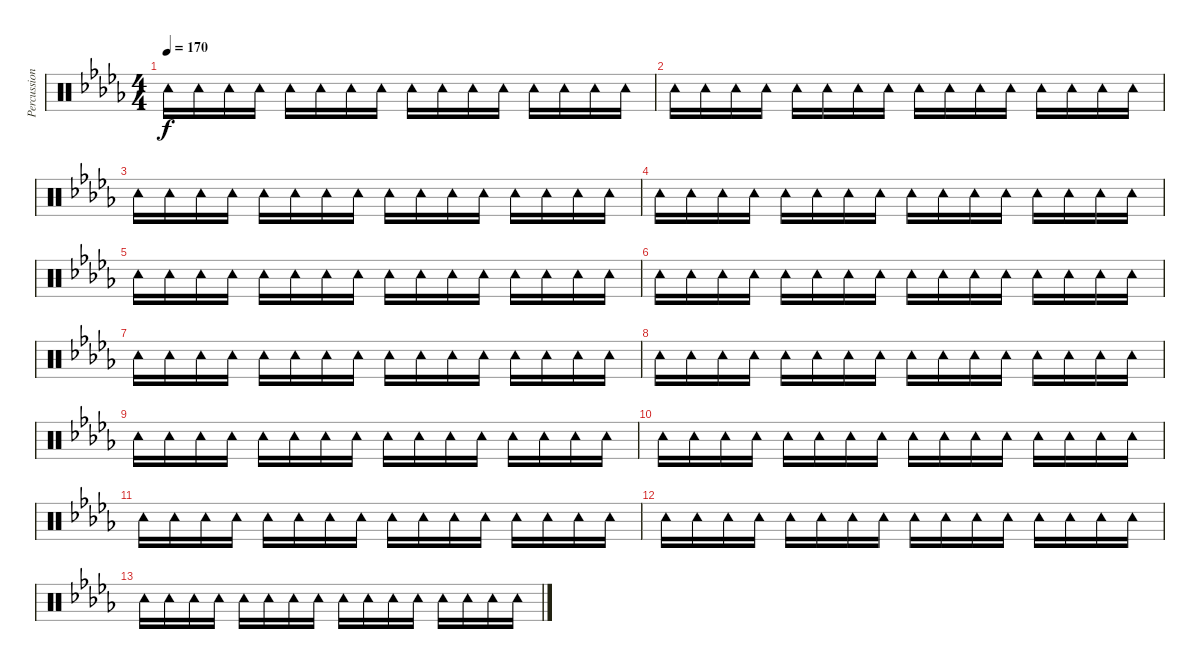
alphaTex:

\track ("Percussion" "Percussion") {instrument percussion}
\staff {score}
\articulation defaults
\ts (4 4)
\tempo 170
\clef neutral
\ks db "Tambourine (hit)".16{dy f} "Tambourine (hit)".16 "Tambourine (hit)".16 "Tambourine (hit)".16 "Tambourine (hit)".16 "Tambourine (hit)".16 "Tambourine (hit)".16 "Tambourine (hit)".16 "Tambourine (hit)".16 "Tambourine (hit)".16 "Tambourine (hit)".16 "Tambourine (hit)".16 "Tambourine (hit)".16 "Tambourine (hit)".16 "Tambourine (hit)".16 "Tambourine (hit)".16
|
"Tambourine (hit)".16 "Tambourine (hit)".16 "Tambourine (hit)".16 "Tambourine (hit)".16 "Tambourine (hit)".16 "Tambourine (hit)".16 "Tambourine (hit)".16 "Tambourine (hit)".16 "Tambourine (hit)".16 "Tambourine (hit)".16 "Tambourine (hit)".16 "Tambourine (hit)".16 "Tambourine (hit)".16 "Tambourine (hit)".16 "Tambourine (hit)".16 "Tambourine (hit)".16 |
"Tambourine (hit)".16 "Tambourine (hit)".16 "Tambourine (hit)".16 "Tambourine (hit)".16 "Tambourine (hit)".16 "Tambourine (hit)".16 "Tambourine (hit)".16 "Tambourine (hit)".16 "Tambourine (hit)".16 "Tambourine (hit)".16 "Tambourine (hit)".16 "Tambourine (hit)".16 "Tambourine (hit)".16 "Tambourine (hit)".16 "Tambourine (hit)".16 "Tambourine (hit)".16 |
"Tambourine (hit)".16 "Tambourine (hit)".16 "Tambourine (hit)".16 "Tambourine (hit)".16 "Tambourine (hit)".16 "Tambourine (hit)".16 "Tambourine (hit)".16 "Tambourine (hit)".16 "Tambourine (hit)".16 "Tambourine (hit)".16 "Tambourine (hit)".16 "Tambourine (hit)".16 "Tambourine (hit)".16 "Tambourine (hit)".16 "Tambourine (hit)".16 "Tambourine (hit)".16 |
"Tambourine (hit)".16 "Tambourine (hit)".16 "Tambourine (hit)".16 "Tambourine (hit)".16 "Tambourine (hit)".16 "Tambourine (hit)".16 "Tambourine (hit)".16 "Tambourine (hit)".16 "Tambourine (hit)".16 "Tambourine (hit)".16 "Tambourine (hit)".16 "Tambourine (hit)".16 "Tambourine (hit)".16 "Tambourine (hit)".16 "Tambourine (hit)".16 "Tambourine (hit)".16 |
"Tambourine (hit)".16 "Tambourine (hit)".16 "Tambourine (hit)".16 "Tambourine (hit)".16 "Tambourine (hit)".16 "Tambourine (hit)".16 "Tambourine (hit)".16 "Tambourine (hit)".16 "Tambourine (hit)".16 "Tambourine (hit)".16 "Tambourine (hit)".16 "Tambourine (hit)".16 "Tambourine (hit)".16 "Tambourine (hit)".16 "Tambourine (hit)".16 "Tambourine (hit)".16 |
"Tambourine (hit)".16 "Tambourine (hit)".16 "Tambourine (hit)".16 "Tambourine (hit)".16 "Tambourine (hit)".16 "Tambourine (hit)".16 "Tambourine (hit)".16 "Tambourine (hit)".16 "Tambourine (hit)".16 "Tambourine (hit)".16 "Tambourine (hit)".16 "Tambourine (hit)".16 "Tambourine (hit)".16 "Tambourine (hit)".16 "Tambourine (hit)".16 "Tambourine (hit)".16 |
"Tambourine (hit)".16 "Tambourine (hit)".16 "Tambourine (hit)".16 "Tambourine (hit)".16 "Tambourine (hit)".16 "Tambourine (hit)".16 "Tambourine (hit)".16 "Tambourine (hit)".16 "Tambourine (hit)".16 "Tambourine (hit)".16 "Tambourine (hit)".16 "Tambourine (hit)".16 "Tambourine (hit)".16 "Tambourine (hit)".16 "Tambourine (hit)".16 "Tambourine (hit)".16 |
"Tambourine (hit)".16 "Tambourine (hit)".16 "Tambourine (hit)".16 "Tambourine (hit)".16 "Tambourine (hit)".16 "Tambourine (hit)".16 "Tambourine (hit)".16 "Tambourine (hit)".16 "Tambourine (hit)".16 "Tambourine (hit)".16 "Tambourine (hit)".16 "Tambourine (hit)".16 "Tambourine (hit)".16 "Tambourine (hit)".16 "Tambourine (hit)".16 "Tambourine (hit)".16 |
"Tambourine (hit)".16 "Tambourine (hit)".16 "Tambourine (hit)".16 "Tambourine (hit)".16 "Tambourine (hit)".16 "Tambourine (hit)".16 "Tambourine (hit)".16 "Tambourine (hit)".16 "Tambourine (hit)".16 "Tambourine (hit)".16 "Tambourine (hit)".16 "Tambourine (hit)".16 "Tambourine (hit)".16 "Tambourine (hit)".16 "Tambourine (hit)".16 "Tambourine (hit)".16 |
"Tambourine (hit)".16 "Tambourine (hit)".16 "Tambourine (hit)".16 "Tambourine (hit)".16 "Tambourine (hit)".16 "Tambourine (hit)".16 "Tambourine (hit)".16 "Tambourine (hit)".16 "Tambourine (hit)".16 "Tambourine (hit)".16 "Tambourine (hit)".16 "Tambourine (hit)".16 "Tambourine (hit)".16 "Tambourine (hit)".16 "Tambourine (hit)".16 "Tambourine (hit)".16 |
"Tambourine (hit)".16 "Tambourine (hit)".16 "Tambourine (hit)".16 "Tambourine (hit)".16 "Tambourine (hit)".16 "Tambourine (hit)".16 "Tambourine (hit)".16 "Tambourine (hit)".16 "Tambourine (hit)".16 "Tambourine (hit)".16 "Tambourine (hit)".16 "Tambourine (hit)".16 "Tambourine (hit)".16 "Tambourine (hit)".16 "Tambourine (hit)".16 "Tambourine (hit)".16 |
"Tambourine (hit)".16 "Tambourine (hit)".16 "Tambourine (hit)".16 "Tambourine (hit)".16 "Tambourine (hit)".16 "Tambourine (hit)".16 "Tambourine (hit)".16 "Tambourine (hit)".16 "Tambourine (hit)".16 "Tambourine (hit)".16 "Tambourine (hit)".16 "Tambourine (hit)".16 "Tambourine (hit)".16 "Tambourine (hit)".16 "Tambourine (hit)".16 "Tambourine (hit)".16
